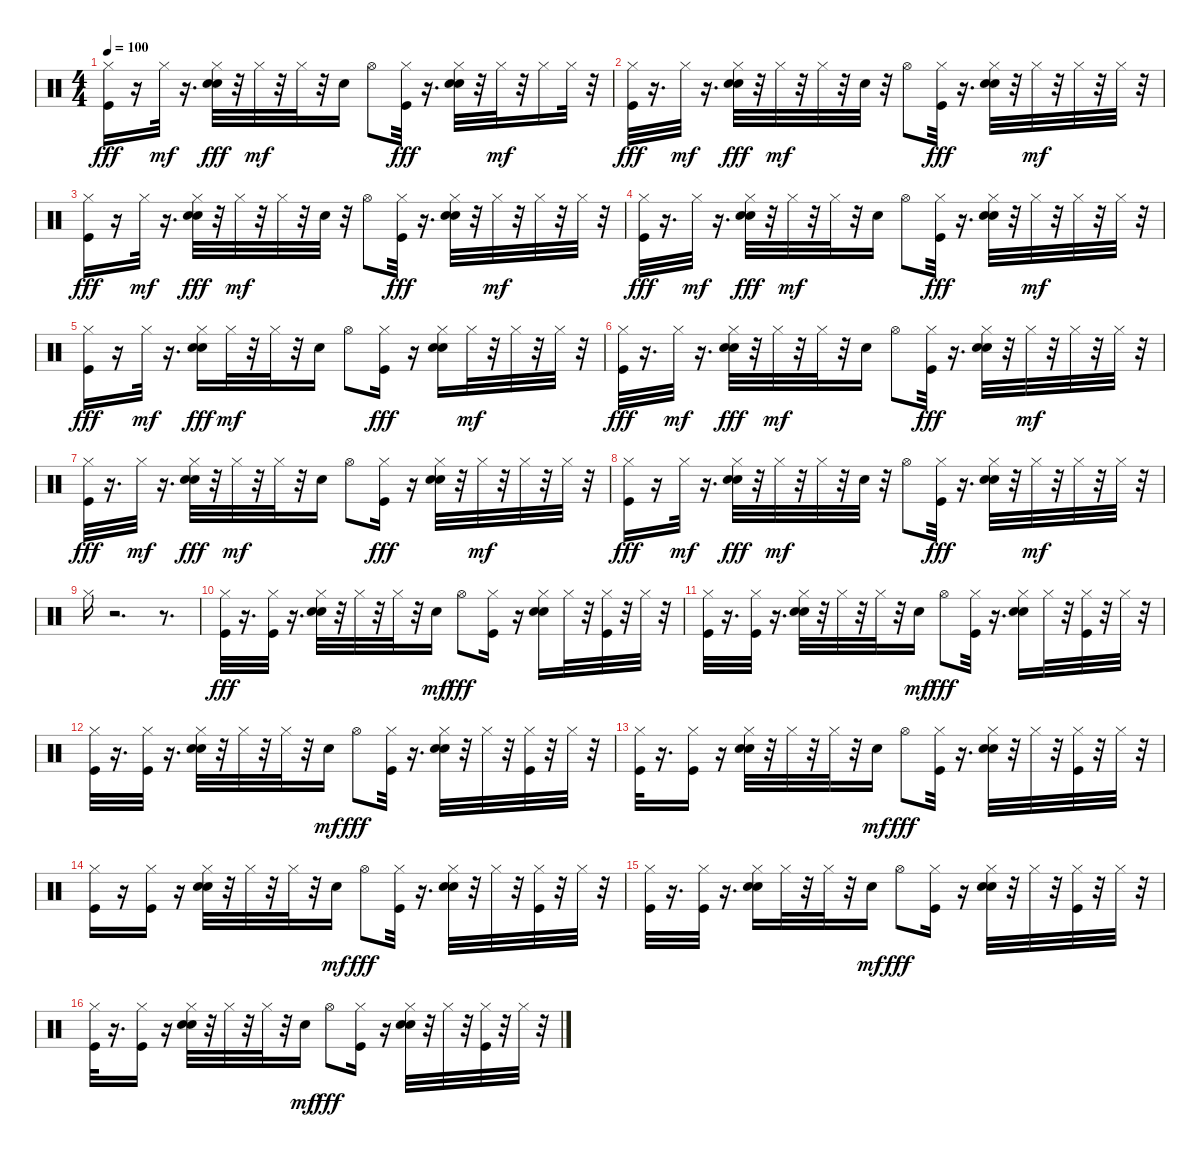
\track "" {instrument percussion}
\staff {score}
\articulation defaults
\ts (4 4)
\tempo 100
\clef neutral
\ks c
("Hi-Hat (closed)" "Kick (hit)").16{dy fff} r.16 "Hi-Hat (closed)".32{dy mf} r.16{d} ("Hi-Hat (closed)" "Hand Clap (hit)" "Snare (hit) 2").32{dy fff} r.32 "Hi-Hat (closed)".32{dy mf} r.32 "Hi-Hat (closed)".32 r.32 "Electric Snare (hit)".16 "Hi-Hat (open)".8 ("Hi-Hat (closed)" "Kick (hit)").32{dy fff} r.16{d} ("Hi-Hat (closed)" "Hand Clap (hit)" "Snare (hit) 2").32 r.32 "Hi-Hat (closed)".32{dy mf} r.32 "Hi-Hat (closed)".16 "Hi-Hat (closed)".32 r.32 |
("Hi-Hat (closed)" "Kick (hit)").32{dy fff} r.16{d} "Hi-Hat (closed)".32{dy mf} r.16{d} ("Hi-Hat (closed)" "Hand Clap (hit)" "Snare (hit) 2").32{dy fff} r.32 "Hi-Hat (closed)".32{dy mf} r.32 "Hi-Hat (closed)".32 r.32 "Electric Snare (hit)".32 r.32 "Hi-Hat (open)".8 ("Hi-Hat (closed)" "Kick (hit)").32{dy fff} r.16{d} ("Hi-Hat (closed)" "Hand Clap (hit)" "Snare (hit) 2").32 r.32 "Hi-Hat (closed)".32{dy mf} r.32 "Hi-Hat (closed)".32 r.32 "Hi-Hat (closed)".32 r.32 |
("Hi-Hat (closed)" "Kick (hit)").16{dy fff} r.16 "Hi-Hat (closed)".32{dy mf} r.16{d} ("Hi-Hat (closed)" "Hand Clap (hit)" "Snare (hit) 2").32{dy fff} r.32 "Hi-Hat (closed)".32{dy mf} r.32 "Hi-Hat (closed)".32 r.32 "Electric Snare (hit)".32 r.32 "Hi-Hat (open)".8 ("Hi-Hat (closed)" "Kick (hit)").32{dy fff} r.16{d} ("Hi-Hat (closed)" "Hand Clap (hit)" "Snare (hit) 2").32 r.32 "Hi-Hat (closed)".32{dy mf} r.32 "Hi-Hat (closed)".32 r.32 "Hi-Hat (closed)".32 r.32 |
("Hi-Hat (closed)" "Kick (hit)").32{dy fff} r.16{d} "Hi-Hat (closed)".32{dy mf} r.16{d} ("Hi-Hat (closed)" "Hand Clap (hit)" "Snare (hit) 2").32{dy fff} r.32 "Hi-Hat (closed)".32{dy mf} r.32 "Hi-Hat (closed)".32 r.32 "Electric Snare (hit)".16 "Hi-Hat (open)".8 ("Hi-Hat (closed)" "Kick (hit)").32{dy fff} r.16{d} ("Hi-Hat (closed)" "Hand Clap (hit)" "Snare (hit) 2").32 r.32 "Hi-Hat (closed)".32{dy mf} r.32 "Hi-Hat (closed)".32 r.32 "Hi-Hat (closed)".32 r.32 |
("Hi-Hat (closed)" "Kick (hit)").16{dy fff} r.16 "Hi-Hat (closed)".32{dy mf} r.16{d} ("Hi-Hat (closed)" "Hand Clap (hit)" "Snare (hit) 2").16{dy fff} "Hi-Hat (closed)".32{dy mf} r.32 "Hi-Hat (closed)".32 r.32 "Electric Snare (hit)".16 "Hi-Hat (open)".8 ("Hi-Hat (closed)" "Kick (hit)").16{dy fff} r.16 ("Hi-Hat (closed)" "Hand Clap (hit)" "Snare (hit) 2").16 "Hi-Hat (closed)".32{dy mf} r.32 "Hi-Hat (closed)".32 r.32 "Hi-Hat (closed)".32 r.32 |
("Hi-Hat (closed)" "Kick (hit)").32{dy fff} r.16{d} "Hi-Hat (closed)".32{dy mf} r.16{d} ("Hi-Hat (closed)" "Hand Clap (hit)" "Snare (hit) 2").32{dy fff} r.32 "Hi-Hat (closed)".32{dy mf} r.32 "Hi-Hat (closed)".32 r.32 "Electric Snare (hit)".16 "Hi-Hat (open)".8 ("Hi-Hat (closed)" "Kick (hit)").32{dy fff} r.16{d} ("Hi-Hat (closed)" "Hand Clap (hit)" "Snare (hit) 2").32 r.32 "Hi-Hat (closed)".32{dy mf} r.32 "Hi-Hat (closed)".32 r.32 "Hi-Hat (closed)".32 r.32 |
("Hi-Hat (closed)" "Kick (hit)").32{dy fff} r.16{d} "Hi-Hat (closed)".32{dy mf} r.16{d} ("Hi-Hat (closed)" "Hand Clap (hit)" "Snare (hit) 2").32{dy fff} r.32 "Hi-Hat (closed)".32{dy mf} r.32 "Hi-Hat (closed)".32 r.32 "Electric Snare (hit)".16 "Hi-Hat (open)".8 ("Hi-Hat (closed)" "Kick (hit)").16{dy fff} r.16 ("Hi-Hat (closed)" "Hand Clap (hit)" "Snare (hit) 2").32 r.32 "Hi-Hat (closed)".32{dy mf} r.32 "Hi-Hat (closed)".32 r.32 "Hi-Hat (closed)".32 r.32 |
("Hi-Hat (closed)" "Kick (hit)").16{dy fff} r.16 "Hi-Hat (closed)".32{dy mf} r.16{d} ("Hi-Hat (closed)" "Hand Clap (hit)" "Snare (hit) 2").32{dy fff} r.32 "Hi-Hat (closed)".32{dy mf} r.32 "Hi-Hat (closed)".32 r.32 "Electric Snare (hit)".32 r.32 "Hi-Hat (open)".8 ("Hi-Hat (closed)" "Kick (hit)").32{dy fff} r.16{d} ("Hi-Hat (closed)" "Hand Clap (hit)" "Snare (hit) 2").32 r.32 "Hi-Hat (closed)".32{dy mf} r.32 "Hi-Hat (closed)".32 r.32 "Hi-Hat (closed)".32 r.32 |
"Hi-Hat (closed)".16 r.2{d} r.8{d} |
("Hi-Hat (closed)" "Kick (hit)").32{dy fff} r.16{d} ("Hi-Hat (closed)" "Kick (hit)").32 r.16{d} ("Hi-Hat (closed)" "Hand Clap (hit)" "Snare (hit) 2").32 r.32 "Hi-Hat (closed)".32 r.32 "Hi-Hat (closed)".32 r.32 "Electric Snare (hit)".16{dy mf} "Hi-Hat (open)".8{dy fff} ("Hi-Hat (closed)" "Kick (hit)").16 r.16 ("Hi-Hat (closed)" "Hand Clap (hit)" "Snare (hit) 2").16 "Hi-Hat (closed)".32 r.32 ("Hi-Hat (closed)" "Kick (hit)").32 r.32 "Hi-Hat (closed)".32 r.32 |
("Hi-Hat (closed)" "Kick (hit)").32 r.16{d} ("Hi-Hat (closed)" "Kick (hit)").32 r.16{d} ("Hi-Hat (closed)" "Hand Clap (hit)" "Snare (hit) 2").32 r.32 "Hi-Hat (closed)".32 r.32 "Hi-Hat (closed)".32 r.32 "Electric Snare (hit)".16{dy mf} "Hi-Hat (open)".8{dy fff} ("Hi-Hat (closed)" "Kick (hit)").32 r.16{d} ("Hi-Hat (closed)" "Hand Clap (hit)" "Snare (hit) 2").16 "Hi-Hat (closed)".32 r.32 ("Hi-Hat (closed)" "Kick (hit)").32 r.32 "Hi-Hat (closed)".32 r.32 |
("Hi-Hat (closed)" "Kick (hit)").32 r.16{d} ("Hi-Hat (closed)" "Kick (hit)").32 r.16{d} ("Hi-Hat (closed)" "Hand Clap (hit)" "Snare (hit) 2").32 r.32 "Hi-Hat (closed)".32 r.32 "Hi-Hat (closed)".32 r.32 "Electric Snare (hit)".16{dy mf} "Hi-Hat (open)".8{dy fff} ("Hi-Hat (closed)" "Kick (hit)").32 r.16{d} ("Hi-Hat (closed)" "Hand Clap (hit)" "Snare (hit) 2").32 r.32 "Hi-Hat (closed)".32 r.32 ("Hi-Hat (closed)" "Kick (hit)").32 r.32 "Hi-Hat (closed)".32 r.32 |
("Hi-Hat (closed)" "Kick (hit)").32 r.16{d} ("Hi-Hat (closed)" "Kick (hit)").16 r.16 ("Hi-Hat (closed)" "Hand Clap (hit)" "Snare (hit) 2").32 r.32 "Hi-Hat (closed)".32 r.32 "Hi-Hat (closed)".32 r.32 "Electric Snare (hit)".16{dy mf} "Hi-Hat (open)".8{dy fff} ("Hi-Hat (closed)" "Kick (hit)").32 r.16{d} ("Hi-Hat (closed)" "Hand Clap (hit)" "Snare (hit) 2").32 r.32 "Hi-Hat (closed)".32 r.32 ("Hi-Hat (closed)" "Kick (hit)").32 r.32 "Hi-Hat (closed)".32 r.32 |
("Hi-Hat (closed)" "Kick (hit)").16 r.16 ("Hi-Hat (closed)" "Kick (hit)").16 r.16 ("Hi-Hat (closed)" "Hand Clap (hit)" "Snare (hit) 2").32 r.32 "Hi-Hat (closed)".32 r.32 "Hi-Hat (closed)".32 r.32 "Electric Snare (hit)".16{dy mf} "Hi-Hat (open)".8{dy fff} ("Hi-Hat (closed)" "Kick (hit)").32 r.16{d} ("Hi-Hat (closed)" "Hand Clap (hit)" "Snare (hit) 2").32 r.32 "Hi-Hat (closed)".32 r.32 ("Hi-Hat (closed)" "Kick (hit)").32 r.32 "Hi-Hat (closed)".32 r.32 |
("Hi-Hat (closed)" "Kick (hit)").32 r.16{d} ("Hi-Hat (closed)" "Kick (hit)").32 r.16{d} ("Hi-Hat (closed)" "Hand Clap (hit)" "Snare (hit) 2").16 "Hi-Hat (closed)".32 r.32 "Hi-Hat (closed)".32 r.32 "Electric Snare (hit)".16{dy mf} "Hi-Hat (open)".8{dy fff} ("Hi-Hat (closed)" "Kick (hit)").16 r.16 ("Hi-Hat (closed)" "Hand Clap (hit)" "Snare (hit) 2").32 r.32 "Hi-Hat (closed)".32 r.32 ("Hi-Hat (closed)" "Kick (hit)").32 r.32 "Hi-Hat (closed)".32 r.32 |
("Hi-Hat (closed)" "Kick (hit)").32 r.16{d} ("Hi-Hat (closed)" "Kick (hit)").16 r.16 ("Hi-Hat (closed)" "Hand Clap (hit)" "Snare (hit) 2").32 r.32 "Hi-Hat (closed)".32 r.32 "Hi-Hat (closed)".32 r.32 "Electric Snare (hit)".16{dy mf} "Hi-Hat (open)".8{dy fff} ("Hi-Hat (closed)" "Kick (hit)").16 r.16 ("Hi-Hat (closed)" "Hand Clap (hit)" "Snare (hit) 2").32 r.32 "Hi-Hat (closed)".32 r.32 ("Hi-Hat (closed)" "Kick (hit)").32 r.32 "Hi-Hat (closed)".32 r.32
